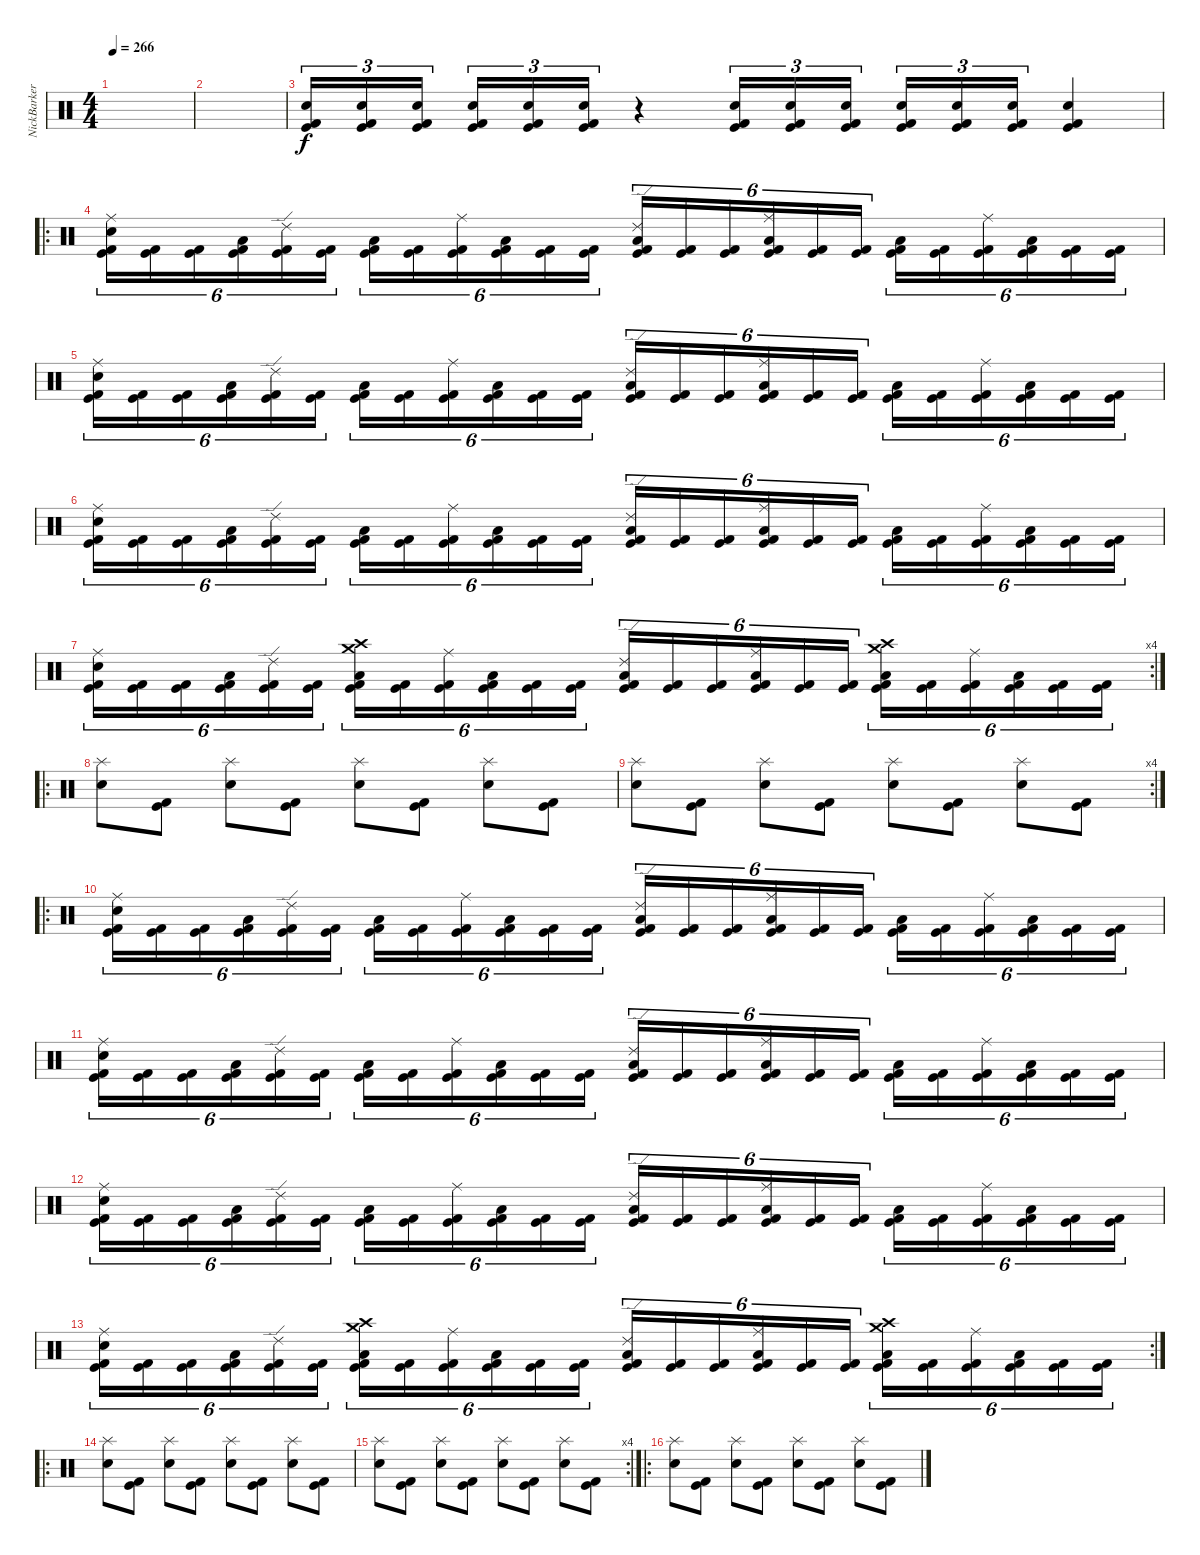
\track ("NickBarker " "NickBarker") {instrument percussion}
\staff {score}
\articulation defaults
\ts (4 4)
\tempo 266
\clef neutral
\ks c
|
|
("Kick (hit)" "Kick (hit) 2" "Electric Snare (hit)").16{tu (3 2)} ("Kick (hit)" "Kick (hit) 2" "Electric Snare (hit)").16{tu (3 2)} ("Kick (hit)" "Kick (hit) 2" "Electric Snare (hit)").16{tu (3 2)} ("Kick (hit)" "Kick (hit) 2" "Electric Snare (hit)").16{tu (3 2)} ("Kick (hit)" "Kick (hit) 2" "Electric Snare (hit)").16{tu (3 2)} ("Kick (hit)" "Kick (hit) 2" "Electric Snare (hit)").16{tu (3 2)} r.4 ("Kick (hit)" "Kick (hit) 2" "Electric Snare (hit)").16{tu (3 2)} ("Kick (hit)" "Kick (hit) 2" "Electric Snare (hit)").16{tu (3 2)} ("Kick (hit)" "Kick (hit) 2" "Electric Snare (hit)").16{tu (3 2)} ("Kick (hit)" "Kick (hit) 2" "Electric Snare (hit)").16{tu (3 2)} ("Kick (hit)" "Kick (hit) 2" "Electric Snare (hit)").16{tu (3 2)} ("Kick (hit)" "Kick (hit) 2" "Electric Snare (hit)").16{tu (3 2)} ("Kick (hit)" "Kick (hit) 2" "Electric Snare (hit)").4 |
\ro
("Kick (hit)" "Kick (hit) 2" "Ride (middle)" "Electric Snare (hit)").16{tu (6 4)} ("Kick (hit)" "Kick (hit) 2").16{tu (6 4)} ("Kick (hit)" "Kick (hit) 2").16{tu (6 4)} ("Kick (hit)" "Kick (hit) 2" "Low Floor Tom (hit)").16{tu (6 4)} ("Kick (hit)" "Kick (hit) 2" "Ride (edge) 2").16{tu (6 4)} ("Kick (hit)" "Kick (hit) 2").16{tu (6 4)} ("Kick (hit)" "Kick (hit) 2" "Low Floor Tom (hit)").16{tu (6 4)} ("Kick (hit)" "Kick (hit) 2").16{tu (6 4)} ("Kick (hit)" "Kick (hit) 2" "Ride (middle)").16{tu (6 4)} ("Kick (hit)" "Kick (hit) 2" "Low Floor Tom (hit)").16{tu (6 4)} ("Kick (hit)" "Kick (hit) 2").16{tu (6 4)} ("Kick (hit)" "Kick (hit) 2").16{tu (6 4)} ("Kick (hit)" "Kick (hit) 2" "Ride (edge) 2" "Low Floor Tom (hit)").16{tu (6 4)} ("Kick (hit)" "Kick (hit) 2").16{tu (6 4)} ("Kick (hit)" "Kick (hit) 2").16{tu (6 4)} ("Kick (hit)" "Kick (hit) 2" "Ride (middle)" "Low Floor Tom (hit)").16{tu (6 4)} ("Kick (hit)" "Kick (hit) 2").16{tu (6 4)} ("Kick (hit)" "Kick (hit) 2").16{tu (6 4)} ("Kick (hit)" "Kick (hit) 2" "Low Floor Tom (hit)").16{tu (6 4)} ("Kick (hit)" "Kick (hit) 2").16{tu (6 4)} ("Kick (hit)" "Kick (hit) 2" "Ride (middle)").16{tu (6 4)} ("Kick (hit)" "Kick (hit) 2" "Low Floor Tom (hit)").16{tu (6 4)} ("Kick (hit)" "Kick (hit) 2").16{tu (6 4)} ("Kick (hit)" "Kick (hit) 2").16{tu (6 4)} |
("Kick (hit)" "Kick (hit) 2" "Ride (middle)" "Electric Snare (hit)").16{tu (6 4)} ("Kick (hit)" "Kick (hit) 2").16{tu (6 4)} ("Kick (hit)" "Kick (hit) 2").16{tu (6 4)} ("Kick (hit)" "Kick (hit) 2" "Low Floor Tom (hit)").16{tu (6 4)} ("Kick (hit)" "Kick (hit) 2" "Ride (edge) 2").16{tu (6 4)} ("Kick (hit)" "Kick (hit) 2").16{tu (6 4)} ("Kick (hit)" "Kick (hit) 2" "Low Floor Tom (hit)").16{tu (6 4)} ("Kick (hit)" "Kick (hit) 2").16{tu (6 4)} ("Kick (hit)" "Kick (hit) 2" "Ride (middle)").16{tu (6 4)} ("Kick (hit)" "Kick (hit) 2" "Low Floor Tom (hit)").16{tu (6 4)} ("Kick (hit)" "Kick (hit) 2").16{tu (6 4)} ("Kick (hit)" "Kick (hit) 2").16{tu (6 4)} ("Kick (hit)" "Kick (hit) 2" "Ride (edge) 2" "Low Floor Tom (hit)").16{tu (6 4)} ("Kick (hit)" "Kick (hit) 2").16{tu (6 4)} ("Kick (hit)" "Kick (hit) 2").16{tu (6 4)} ("Kick (hit)" "Kick (hit) 2" "Ride (middle)" "Low Floor Tom (hit)").16{tu (6 4)} ("Kick (hit)" "Kick (hit) 2").16{tu (6 4)} ("Kick (hit)" "Kick (hit) 2").16{tu (6 4)} ("Kick (hit)" "Kick (hit) 2" "Low Floor Tom (hit)").16{tu (6 4)} ("Kick (hit)" "Kick (hit) 2").16{tu (6 4)} ("Kick (hit)" "Kick (hit) 2" "Ride (middle)").16{tu (6 4)} ("Kick (hit)" "Kick (hit) 2" "Low Floor Tom (hit)").16{tu (6 4)} ("Kick (hit)" "Kick (hit) 2").16{tu (6 4)} ("Kick (hit)" "Kick (hit) 2").16{tu (6 4)} |
("Kick (hit)" "Kick (hit) 2" "Ride (middle)" "Electric Snare (hit)").16{tu (6 4)} ("Kick (hit)" "Kick (hit) 2").16{tu (6 4)} ("Kick (hit)" "Kick (hit) 2").16{tu (6 4)} ("Kick (hit)" "Kick (hit) 2" "Low Floor Tom (hit)").16{tu (6 4)} ("Kick (hit)" "Kick (hit) 2" "Ride (edge) 2").16{tu (6 4)} ("Kick (hit)" "Kick (hit) 2").16{tu (6 4)} ("Kick (hit)" "Kick (hit) 2" "Low Floor Tom (hit)").16{tu (6 4)} ("Kick (hit)" "Kick (hit) 2").16{tu (6 4)} ("Kick (hit)" "Kick (hit) 2" "Ride (middle)").16{tu (6 4)} ("Kick (hit)" "Kick (hit) 2" "Low Floor Tom (hit)").16{tu (6 4)} ("Kick (hit)" "Kick (hit) 2").16{tu (6 4)} ("Kick (hit)" "Kick (hit) 2").16{tu (6 4)} ("Kick (hit)" "Kick (hit) 2" "Ride (edge) 2" "Low Floor Tom (hit)").16{tu (6 4)} ("Kick (hit)" "Kick (hit) 2").16{tu (6 4)} ("Kick (hit)" "Kick (hit) 2").16{tu (6 4)} ("Kick (hit)" "Kick (hit) 2" "Ride (middle)" "Low Floor Tom (hit)").16{tu (6 4)} ("Kick (hit)" "Kick (hit) 2").16{tu (6 4)} ("Kick (hit)" "Kick (hit) 2").16{tu (6 4)} ("Kick (hit)" "Kick (hit) 2" "Low Floor Tom (hit)").16{tu (6 4)} ("Kick (hit)" "Kick (hit) 2").16{tu (6 4)} ("Kick (hit)" "Kick (hit) 2" "Ride (middle)").16{tu (6 4)} ("Kick (hit)" "Kick (hit) 2" "Low Floor Tom (hit)").16{tu (6 4)} ("Kick (hit)" "Kick (hit) 2").16{tu (6 4)} ("Kick (hit)" "Kick (hit) 2").16{tu (6 4)} |
\rc 4
("Kick (hit)" "Kick (hit) 2" "Ride (middle)" "Electric Snare (hit)").16{tu (6 4)} ("Kick (hit)" "Kick (hit) 2").16{tu (6 4)} ("Kick (hit)" "Kick (hit) 2").16{tu (6 4)} ("Kick (hit)" "Kick (hit) 2" "Low Floor Tom (hit)").16{tu (6 4)} ("Kick (hit)" "Kick (hit) 2" "Ride (edge) 2").16{tu (6 4)} ("Kick (hit)" "Kick (hit) 2").16{tu (6 4)} ("Kick (hit)" "Kick (hit) 2" "Crash high (hit)" "Low Floor Tom (hit)" "Crash medium (hit)").16{tu (6 4)} ("Kick (hit)" "Kick (hit) 2").16{tu (6 4)} ("Kick (hit)" "Kick (hit) 2" "Ride (middle)").16{tu (6 4)} ("Kick (hit)" "Kick (hit) 2" "Low Floor Tom (hit)").16{tu (6 4)} ("Kick (hit)" "Kick (hit) 2").16{tu (6 4)} ("Kick (hit)" "Kick (hit) 2").16{tu (6 4)} ("Kick (hit)" "Kick (hit) 2" "Ride (edge) 2" "Low Floor Tom (hit)").16{tu (6 4)} ("Kick (hit)" "Kick (hit) 2").16{tu (6 4)} ("Kick (hit)" "Kick (hit) 2").16{tu (6 4)} ("Kick (hit)" "Kick (hit) 2" "Ride (middle)" "Low Floor Tom (hit)").16{tu (6 4)} ("Kick (hit)" "Kick (hit) 2").16{tu (6 4)} ("Kick (hit)" "Kick (hit) 2").16{tu (6 4)} ("Kick (hit)" "Kick (hit) 2" "Crash high (hit)" "Low Floor Tom (hit)" "Crash medium (hit)").16{tu (6 4)} ("Kick (hit)" "Kick (hit) 2").16{tu (6 4)} ("Kick (hit)" "Kick (hit) 2" "Ride (middle)").16{tu (6 4)} ("Kick (hit)" "Kick (hit) 2" "Low Floor Tom (hit)").16{tu (6 4)} ("Kick (hit)" "Kick (hit) 2").16{tu (6 4)} ("Kick (hit)" "Kick (hit) 2").16{tu (6 4)} |
\ro
("Splash (hit)" "Electric Snare (hit)").8 ("Kick (hit)" "Kick (hit) 2").8 ("Splash (hit)" "Electric Snare (hit)").8 ("Kick (hit)" "Kick (hit) 2").8 ("Splash (hit)" "Electric Snare (hit)").8 ("Kick (hit)" "Kick (hit) 2").8 ("Splash (hit)" "Electric Snare (hit)").8 ("Kick (hit)" "Kick (hit) 2").8 |
\rc 4
("Splash (hit)" "Electric Snare (hit)").8 ("Kick (hit)" "Kick (hit) 2").8 ("Splash (hit)" "Electric Snare (hit)").8 ("Kick (hit)" "Kick (hit) 2").8 ("Splash (hit)" "Electric Snare (hit)").8 ("Kick (hit)" "Kick (hit) 2").8 ("Splash (hit)" "Electric Snare (hit)").8 ("Kick (hit)" "Kick (hit) 2").8 |
\ro
("Kick (hit)" "Kick (hit) 2" "Ride (middle)" "Electric Snare (hit)").16{tu (6 4)} ("Kick (hit)" "Kick (hit) 2").16{tu (6 4)} ("Kick (hit)" "Kick (hit) 2").16{tu (6 4)} ("Kick (hit)" "Kick (hit) 2" "Low Floor Tom (hit)").16{tu (6 4)} ("Kick (hit)" "Kick (hit) 2" "Ride (edge) 2").16{tu (6 4)} ("Kick (hit)" "Kick (hit) 2").16{tu (6 4)} ("Kick (hit)" "Kick (hit) 2" "Low Floor Tom (hit)").16{tu (6 4)} ("Kick (hit)" "Kick (hit) 2").16{tu (6 4)} ("Kick (hit)" "Kick (hit) 2" "Ride (middle)").16{tu (6 4)} ("Kick (hit)" "Kick (hit) 2" "Low Floor Tom (hit)").16{tu (6 4)} ("Kick (hit)" "Kick (hit) 2").16{tu (6 4)} ("Kick (hit)" "Kick (hit) 2").16{tu (6 4)} ("Kick (hit)" "Kick (hit) 2" "Ride (edge) 2" "Low Floor Tom (hit)").16{tu (6 4)} ("Kick (hit)" "Kick (hit) 2").16{tu (6 4)} ("Kick (hit)" "Kick (hit) 2").16{tu (6 4)} ("Kick (hit)" "Kick (hit) 2" "Ride (middle)" "Low Floor Tom (hit)").16{tu (6 4)} ("Kick (hit)" "Kick (hit) 2").16{tu (6 4)} ("Kick (hit)" "Kick (hit) 2").16{tu (6 4)} ("Kick (hit)" "Kick (hit) 2" "Low Floor Tom (hit)").16{tu (6 4)} ("Kick (hit)" "Kick (hit) 2").16{tu (6 4)} ("Kick (hit)" "Kick (hit) 2" "Ride (middle)").16{tu (6 4)} ("Kick (hit)" "Kick (hit) 2" "Low Floor Tom (hit)").16{tu (6 4)} ("Kick (hit)" "Kick (hit) 2").16{tu (6 4)} ("Kick (hit)" "Kick (hit) 2").16{tu (6 4)} |
("Kick (hit)" "Kick (hit) 2" "Ride (middle)" "Electric Snare (hit)").16{tu (6 4)} ("Kick (hit)" "Kick (hit) 2").16{tu (6 4)} ("Kick (hit)" "Kick (hit) 2").16{tu (6 4)} ("Kick (hit)" "Kick (hit) 2" "Low Floor Tom (hit)").16{tu (6 4)} ("Kick (hit)" "Kick (hit) 2" "Ride (edge) 2").16{tu (6 4)} ("Kick (hit)" "Kick (hit) 2").16{tu (6 4)} ("Kick (hit)" "Kick (hit) 2" "Low Floor Tom (hit)").16{tu (6 4)} ("Kick (hit)" "Kick (hit) 2").16{tu (6 4)} ("Kick (hit)" "Kick (hit) 2" "Ride (middle)").16{tu (6 4)} ("Kick (hit)" "Kick (hit) 2" "Low Floor Tom (hit)").16{tu (6 4)} ("Kick (hit)" "Kick (hit) 2").16{tu (6 4)} ("Kick (hit)" "Kick (hit) 2").16{tu (6 4)} ("Kick (hit)" "Kick (hit) 2" "Ride (edge) 2" "Low Floor Tom (hit)").16{tu (6 4)} ("Kick (hit)" "Kick (hit) 2").16{tu (6 4)} ("Kick (hit)" "Kick (hit) 2").16{tu (6 4)} ("Kick (hit)" "Kick (hit) 2" "Ride (middle)" "Low Floor Tom (hit)").16{tu (6 4)} ("Kick (hit)" "Kick (hit) 2").16{tu (6 4)} ("Kick (hit)" "Kick (hit) 2").16{tu (6 4)} ("Kick (hit)" "Kick (hit) 2" "Low Floor Tom (hit)").16{tu (6 4)} ("Kick (hit)" "Kick (hit) 2").16{tu (6 4)} ("Kick (hit)" "Kick (hit) 2" "Ride (middle)").16{tu (6 4)} ("Kick (hit)" "Kick (hit) 2" "Low Floor Tom (hit)").16{tu (6 4)} ("Kick (hit)" "Kick (hit) 2").16{tu (6 4)} ("Kick (hit)" "Kick (hit) 2").16{tu (6 4)} |
("Kick (hit)" "Kick (hit) 2" "Ride (middle)" "Electric Snare (hit)").16{tu (6 4)} ("Kick (hit)" "Kick (hit) 2").16{tu (6 4)} ("Kick (hit)" "Kick (hit) 2").16{tu (6 4)} ("Kick (hit)" "Kick (hit) 2" "Low Floor Tom (hit)").16{tu (6 4)} ("Kick (hit)" "Kick (hit) 2" "Ride (edge) 2").16{tu (6 4)} ("Kick (hit)" "Kick (hit) 2").16{tu (6 4)} ("Kick (hit)" "Kick (hit) 2" "Low Floor Tom (hit)").16{tu (6 4)} ("Kick (hit)" "Kick (hit) 2").16{tu (6 4)} ("Kick (hit)" "Kick (hit) 2" "Ride (middle)").16{tu (6 4)} ("Kick (hit)" "Kick (hit) 2" "Low Floor Tom (hit)").16{tu (6 4)} ("Kick (hit)" "Kick (hit) 2").16{tu (6 4)} ("Kick (hit)" "Kick (hit) 2").16{tu (6 4)} ("Kick (hit)" "Kick (hit) 2" "Ride (edge) 2" "Low Floor Tom (hit)").16{tu (6 4)} ("Kick (hit)" "Kick (hit) 2").16{tu (6 4)} ("Kick (hit)" "Kick (hit) 2").16{tu (6 4)} ("Kick (hit)" "Kick (hit) 2" "Ride (middle)" "Low Floor Tom (hit)").16{tu (6 4)} ("Kick (hit)" "Kick (hit) 2").16{tu (6 4)} ("Kick (hit)" "Kick (hit) 2").16{tu (6 4)} ("Kick (hit)" "Kick (hit) 2" "Low Floor Tom (hit)").16{tu (6 4)} ("Kick (hit)" "Kick (hit) 2").16{tu (6 4)} ("Kick (hit)" "Kick (hit) 2" "Ride (middle)").16{tu (6 4)} ("Kick (hit)" "Kick (hit) 2" "Low Floor Tom (hit)").16{tu (6 4)} ("Kick (hit)" "Kick (hit) 2").16{tu (6 4)} ("Kick (hit)" "Kick (hit) 2").16{tu (6 4)} |
\rc 2
("Kick (hit)" "Kick (hit) 2" "Ride (middle)" "Electric Snare (hit)").16{tu (6 4)} ("Kick (hit)" "Kick (hit) 2").16{tu (6 4)} ("Kick (hit)" "Kick (hit) 2").16{tu (6 4)} ("Kick (hit)" "Kick (hit) 2" "Low Floor Tom (hit)").16{tu (6 4)} ("Kick (hit)" "Kick (hit) 2" "Ride (edge) 2").16{tu (6 4)} ("Kick (hit)" "Kick (hit) 2").16{tu (6 4)} ("Kick (hit)" "Kick (hit) 2" "Crash high (hit)" "Low Floor Tom (hit)" "Crash medium (hit)").16{tu (6 4)} ("Kick (hit)" "Kick (hit) 2").16{tu (6 4)} ("Kick (hit)" "Kick (hit) 2" "Ride (middle)").16{tu (6 4)} ("Kick (hit)" "Kick (hit) 2" "Low Floor Tom (hit)").16{tu (6 4)} ("Kick (hit)" "Kick (hit) 2").16{tu (6 4)} ("Kick (hit)" "Kick (hit) 2").16{tu (6 4)} ("Kick (hit)" "Kick (hit) 2" "Ride (edge) 2" "Low Floor Tom (hit)").16{tu (6 4)} ("Kick (hit)" "Kick (hit) 2").16{tu (6 4)} ("Kick (hit)" "Kick (hit) 2").16{tu (6 4)} ("Kick (hit)" "Kick (hit) 2" "Ride (middle)" "Low Floor Tom (hit)").16{tu (6 4)} ("Kick (hit)" "Kick (hit) 2").16{tu (6 4)} ("Kick (hit)" "Kick (hit) 2").16{tu (6 4)} ("Kick (hit)" "Kick (hit) 2" "Crash high (hit)" "Low Floor Tom (hit)" "Crash medium (hit)").16{tu (6 4)} ("Kick (hit)" "Kick (hit) 2").16{tu (6 4)} ("Kick (hit)" "Kick (hit) 2" "Ride (middle)").16{tu (6 4)} ("Kick (hit)" "Kick (hit) 2" "Low Floor Tom (hit)").16{tu (6 4)} ("Kick (hit)" "Kick (hit) 2").16{tu (6 4)} ("Kick (hit)" "Kick (hit) 2").16{tu (6 4)} |
\ro
("Splash (hit)" "Electric Snare (hit)").8 ("Kick (hit)" "Kick (hit) 2").8 ("Splash (hit)" "Electric Snare (hit)").8 ("Kick (hit)" "Kick (hit) 2").8 ("Splash (hit)" "Electric Snare (hit)").8 ("Kick (hit)" "Kick (hit) 2").8 ("Splash (hit)" "Electric Snare (hit)").8 ("Kick (hit)" "Kick (hit) 2").8 |
\rc 4
("Splash (hit)" "Electric Snare (hit)").8 ("Kick (hit)" "Kick (hit) 2").8 ("Splash (hit)" "Electric Snare (hit)").8 ("Kick (hit)" "Kick (hit) 2").8 ("Splash (hit)" "Electric Snare (hit)").8 ("Kick (hit)" "Kick (hit) 2").8 ("Splash (hit)" "Electric Snare (hit)").8 ("Kick (hit)" "Kick (hit) 2").8 |
\ro
("Splash (hit)" "Electric Snare (hit)").8 ("Kick (hit)" "Kick (hit) 2").8 ("Splash (hit)" "Electric Snare (hit)").8 ("Kick (hit)" "Kick (hit) 2").8 ("Splash (hit)" "Electric Snare (hit)").8 ("Kick (hit)" "Kick (hit) 2").8 ("Splash (hit)" "Electric Snare (hit)").8 ("Kick (hit)" "Kick (hit) 2").8
